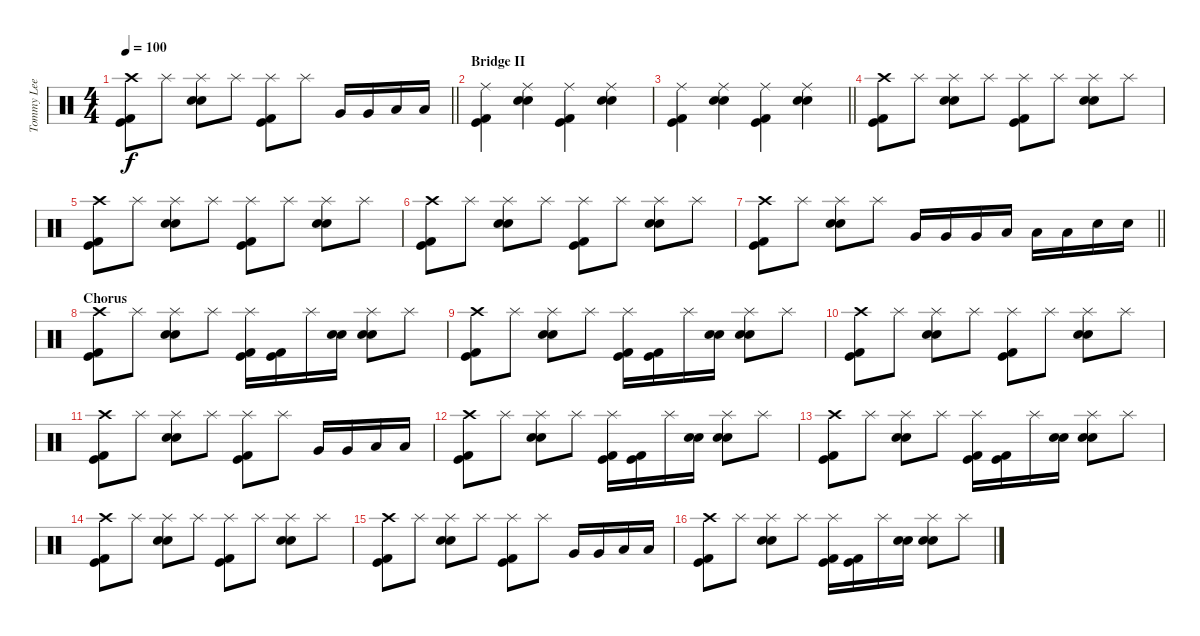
\track ("Tommy Lee" "Tommy Lee") {instrument percussion}
\staff {score}
\articulation defaults
\ts (4 4)
\tempo 100
\clef neutral
\barLineRight lightlight
\ks c
("Crash high (hit)" "Kick (hit) 2" "Kick (hit)").8{dy f} "Splash (hit)".8 ("Splash (hit)" "Electric Snare (hit)" "Snare (hit) 2").8 "Splash (hit)".8 ("Splash (hit)" "Kick (hit) 2" "Kick (hit)").8 "Splash (hit)".8 "Very Low Tom (hit)".16 "Very Low Tom (hit)".16 "Low Floor Tom (hit)".16 "Low Floor Tom (hit)".16 |
\section ("" "Bridge II")
("Ride (middle)" "Kick (hit) 2" "Kick (hit)").4 ("Ride (middle)" "Electric Snare (hit)" "Snare (hit) 2").4 ("Ride (middle)" "Kick (hit) 2" "Kick (hit)").4 ("Ride (middle)" "Electric Snare (hit)" "Snare (hit) 2").4 |
\barLineRight lightlight
("Ride (middle)" "Kick (hit) 2" "Kick (hit)").4 ("Ride (middle)" "Electric Snare (hit)" "Snare (hit) 2").4 ("Ride (middle)" "Kick (hit) 2" "Kick (hit)").4 ("Ride (middle)" "Electric Snare (hit)" "Snare (hit) 2").4 |
("Crash high (hit)" "Kick (hit) 2" "Kick (hit)").8 "Splash (hit)".8 ("Splash (hit)" "Electric Snare (hit)" "Snare (hit) 2").8 "Splash (hit)".8 ("Splash (hit)" "Kick (hit) 2" "Kick (hit)").8 "Splash (hit)".8 ("Splash (hit)" "Electric Snare (hit)" "Snare (hit) 2").8 "Splash (hit)".8 |
("Crash high (hit)" "Kick (hit) 2" "Kick (hit)").8 "Splash (hit)".8 ("Splash (hit)" "Electric Snare (hit)" "Snare (hit) 2").8 "Splash (hit)".8 ("Splash (hit)" "Kick (hit) 2" "Kick (hit)").8 "Splash (hit)".8 ("Splash (hit)" "Electric Snare (hit)" "Snare (hit) 2").8 "Splash (hit)".8 |
("Crash high (hit)" "Kick (hit) 2" "Kick (hit)").8 "Splash (hit)".8 ("Splash (hit)" "Electric Snare (hit)" "Snare (hit) 2").8 "Splash (hit)".8 ("Splash (hit)" "Kick (hit) 2" "Kick (hit)").8 "Splash (hit)".8 ("Splash (hit)" "Electric Snare (hit)" "Snare (hit) 2").8 "Splash (hit)".8 |
\barLineRight lightlight
("Crash high (hit)" "Kick (hit) 2" "Kick (hit)").8 "Splash (hit)".8 ("Splash (hit)" "Electric Snare (hit)" "Snare (hit) 2").8 "Splash (hit)".8 "Very Low Tom (hit)".16 "Very Low Tom (hit)".16 "Very Low Tom (hit)".16 "Low Floor Tom (hit)".16 "Low Floor Tom (hit)".16 "Low Floor Tom (hit)".16 "Electric Snare (hit)".16 "Electric Snare (hit)".16 |
\section ("" "Chorus")
("Crash high (hit)" "Kick (hit) 2" "Kick (hit)").8 "Splash (hit)".8 ("Splash (hit)" "Electric Snare (hit)" "Snare (hit) 2").8 "Splash (hit)".8 ("Splash (hit)" "Kick (hit) 2" "Kick (hit)").16 ("Kick (hit) 2" "Kick (hit)").16 "Splash (hit)".16 ("Electric Snare (hit)" "Snare (hit) 2").16 ("Splash (hit)" "Electric Snare (hit)" "Snare (hit) 2").8 "Splash (hit)".8 |
("Crash high (hit)" "Kick (hit) 2" "Kick (hit)").8 "Splash (hit)".8 ("Splash (hit)" "Electric Snare (hit)" "Snare (hit) 2").8 "Splash (hit)".8 ("Splash (hit)" "Kick (hit) 2" "Kick (hit)").16 ("Kick (hit) 2" "Kick (hit)").16 "Splash (hit)".16 ("Electric Snare (hit)" "Snare (hit) 2").16 ("Splash (hit)" "Electric Snare (hit)" "Snare (hit) 2").8 "Splash (hit)".8 |
("Crash high (hit)" "Kick (hit) 2" "Kick (hit)").8 "Splash (hit)".8 ("Splash (hit)" "Electric Snare (hit)" "Snare (hit) 2").8 "Splash (hit)".8 ("Splash (hit)" "Kick (hit) 2" "Kick (hit)").8 "Splash (hit)".8 ("Splash (hit)" "Electric Snare (hit)" "Snare (hit) 2").8 "Splash (hit)".8 |
("Crash high (hit)" "Kick (hit) 2" "Kick (hit)").8 "Splash (hit)".8 ("Splash (hit)" "Electric Snare (hit)" "Snare (hit) 2").8 "Splash (hit)".8 ("Splash (hit)" "Kick (hit) 2" "Kick (hit)").8 "Splash (hit)".8 "Very Low Tom (hit)".16 "Very Low Tom (hit)".16 "Low Floor Tom (hit)".16 "Low Floor Tom (hit)".16 |
("Crash high (hit)" "Kick (hit) 2" "Kick (hit)").8 "Splash (hit)".8 ("Splash (hit)" "Electric Snare (hit)" "Snare (hit) 2").8 "Splash (hit)".8 ("Splash (hit)" "Kick (hit) 2" "Kick (hit)").16 ("Kick (hit) 2" "Kick (hit)").16 "Splash (hit)".16 ("Electric Snare (hit)" "Snare (hit) 2").16 ("Splash (hit)" "Electric Snare (hit)" "Snare (hit) 2").8 "Splash (hit)".8 |
("Crash high (hit)" "Kick (hit) 2" "Kick (hit)").8 "Splash (hit)".8 ("Splash (hit)" "Electric Snare (hit)" "Snare (hit) 2").8 "Splash (hit)".8 ("Splash (hit)" "Kick (hit) 2" "Kick (hit)").16 ("Kick (hit) 2" "Kick (hit)").16 "Splash (hit)".16 ("Electric Snare (hit)" "Snare (hit) 2").16 ("Splash (hit)" "Electric Snare (hit)" "Snare (hit) 2").8 "Splash (hit)".8 |
("Crash high (hit)" "Kick (hit) 2" "Kick (hit)").8 "Splash (hit)".8 ("Splash (hit)" "Electric Snare (hit)" "Snare (hit) 2").8 "Splash (hit)".8 ("Splash (hit)" "Kick (hit) 2" "Kick (hit)").8 "Splash (hit)".8 ("Splash (hit)" "Electric Snare (hit)" "Snare (hit) 2").8 "Splash (hit)".8 |
("Crash high (hit)" "Kick (hit) 2" "Kick (hit)").8 "Splash (hit)".8 ("Splash (hit)" "Electric Snare (hit)" "Snare (hit) 2").8 "Splash (hit)".8 ("Splash (hit)" "Kick (hit) 2" "Kick (hit)").8 "Splash (hit)".8 "Very Low Tom (hit)".16 "Very Low Tom (hit)".16 "Low Floor Tom (hit)".16 "Low Floor Tom (hit)".16 |
("Crash high (hit)" "Kick (hit) 2" "Kick (hit)").8 "Splash (hit)".8 ("Splash (hit)" "Electric Snare (hit)" "Snare (hit) 2").8 "Splash (hit)".8 ("Splash (hit)" "Kick (hit) 2" "Kick (hit)").16 ("Kick (hit) 2" "Kick (hit)").16 "Splash (hit)".16 ("Electric Snare (hit)" "Snare (hit) 2").16 ("Splash (hit)" "Electric Snare (hit)" "Snare (hit) 2").8 "Splash (hit)".8
